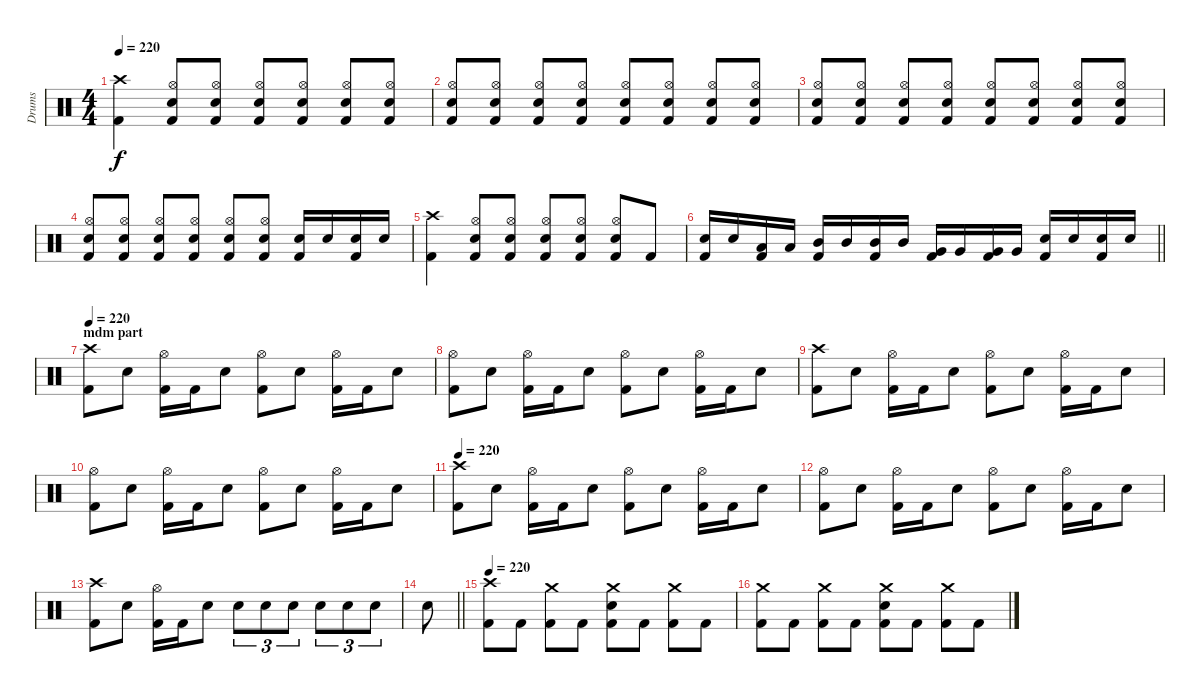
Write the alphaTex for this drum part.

\track ("Drums" "Drums") {instrument percussion}
\staff {score}
\articulation defaults
\ts (4 4)
\tempo 220
\clef neutral
\ks c
("Kick (hit) 2" "Crash high (hit)").4{dy f} ("Kick (hit) 2" "Hi-Hat (open)" "Electric Snare (hit)").8 ("Kick (hit) 2" "Hi-Hat (open)" "Electric Snare (hit)").8 ("Kick (hit) 2" "Hi-Hat (open)" "Electric Snare (hit)").8 ("Kick (hit) 2" "Hi-Hat (open)" "Electric Snare (hit)").8 ("Kick (hit) 2" "Hi-Hat (open)" "Electric Snare (hit)").8 ("Kick (hit) 2" "Hi-Hat (open)" "Electric Snare (hit)").8 |
("Kick (hit) 2" "Hi-Hat (open)" "Electric Snare (hit)").8 ("Kick (hit) 2" "Hi-Hat (open)" "Electric Snare (hit)").8 ("Kick (hit) 2" "Hi-Hat (open)" "Electric Snare (hit)").8 ("Kick (hit) 2" "Hi-Hat (open)" "Electric Snare (hit)").8 ("Kick (hit) 2" "Hi-Hat (open)" "Electric Snare (hit)").8 ("Kick (hit) 2" "Hi-Hat (open)" "Electric Snare (hit)").8 ("Kick (hit) 2" "Hi-Hat (open)" "Electric Snare (hit)").8 ("Kick (hit) 2" "Hi-Hat (open)" "Electric Snare (hit)").8 |
("Kick (hit) 2" "Hi-Hat (open)" "Electric Snare (hit)").8 ("Kick (hit) 2" "Hi-Hat (open)" "Electric Snare (hit)").8 ("Kick (hit) 2" "Hi-Hat (open)" "Electric Snare (hit)").8 ("Kick (hit) 2" "Hi-Hat (open)" "Electric Snare (hit)").8 ("Kick (hit) 2" "Hi-Hat (open)" "Electric Snare (hit)").8 ("Kick (hit) 2" "Hi-Hat (open)" "Electric Snare (hit)").8 ("Kick (hit) 2" "Hi-Hat (open)" "Electric Snare (hit)").8 ("Kick (hit) 2" "Hi-Hat (open)" "Electric Snare (hit)").8 |
("Kick (hit) 2" "Hi-Hat (open)" "Electric Snare (hit)").8 ("Kick (hit) 2" "Hi-Hat (open)" "Electric Snare (hit)").8 ("Kick (hit) 2" "Hi-Hat (open)" "Electric Snare (hit)").8 ("Kick (hit) 2" "Hi-Hat (open)" "Electric Snare (hit)").8 ("Kick (hit) 2" "Hi-Hat (open)" "Electric Snare (hit)").8 ("Kick (hit) 2" "Hi-Hat (open)" "Electric Snare (hit)").8 ("Electric Snare (hit)" "Kick (hit) 2").16 "Electric Snare (hit)".16 ("Electric Snare (hit)" "Kick (hit) 2").16 "Electric Snare (hit)".16 |
("Kick (hit) 2" "Crash high (hit)").4 ("Kick (hit) 2" "Hi-Hat (open)" "Electric Snare (hit)").8 ("Kick (hit) 2" "Hi-Hat (open)" "Electric Snare (hit)").8 ("Kick (hit) 2" "Hi-Hat (open)" "Electric Snare (hit)").8 ("Kick (hit) 2" "Hi-Hat (open)" "Electric Snare (hit)").8 ("Kick (hit) 2" "Hi-Hat (open)" "Electric Snare (hit)").8 "Kick (hit) 2".8 |
\barLineRight lightlight
("Electric Snare (hit)" "Kick (hit) 2").16 "Electric Snare (hit)".16 ("Low Tom (hit)" "Kick (hit) 2").16 "Low Tom (hit)".16 ("Mid Tom (hit)" "Kick (hit) 2").16 "Mid Tom (hit)".16 ("Mid Tom (hit)" "Kick (hit) 2").16 "Mid Tom (hit)".16 ("Very Low Tom (hit)" "Kick (hit) 2").16 "Very Low Tom (hit)".16 ("Very Low Tom (hit)" "Kick (hit) 2").16 "Very Low Tom (hit)".16 ("Electric Snare (hit)" "Kick (hit) 2").16 "Electric Snare (hit)".16 ("Electric Snare (hit)" "Kick (hit) 2").16 "Electric Snare (hit)".16 |
\section ("" "mdm part")
\tempo 220
("Crash high (hit)" "Kick (hit) 2").8 "Electric Snare (hit)".8 ("Hi-Hat (open)" "Kick (hit) 2").16 "Kick (hit) 2".16 "Electric Snare (hit)".8 ("Hi-Hat (open)" "Kick (hit) 2").8 "Electric Snare (hit)".8 ("Hi-Hat (open)" "Kick (hit) 2").16 "Kick (hit) 2".16 "Electric Snare (hit)".8 |
("Hi-Hat (open)" "Kick (hit) 2").8 "Electric Snare (hit)".8 ("Hi-Hat (open)" "Kick (hit) 2").16 "Kick (hit) 2".16 "Electric Snare (hit)".8 ("Hi-Hat (open)" "Kick (hit) 2").8 "Electric Snare (hit)".8 ("Hi-Hat (open)" "Kick (hit) 2").16 "Kick (hit) 2".16 "Electric Snare (hit)".8 |
("Crash high (hit)" "Kick (hit) 2").8 "Electric Snare (hit)".8 ("Hi-Hat (open)" "Kick (hit) 2").16 "Kick (hit) 2".16 "Electric Snare (hit)".8 ("Hi-Hat (open)" "Kick (hit) 2").8 "Electric Snare (hit)".8 ("Hi-Hat (open)" "Kick (hit) 2").16 "Kick (hit) 2".16 "Electric Snare (hit)".8 |
("Hi-Hat (open)" "Kick (hit) 2").8 "Electric Snare (hit)".8 ("Hi-Hat (open)" "Kick (hit) 2").16 "Kick (hit) 2".16 "Electric Snare (hit)".8 ("Hi-Hat (open)" "Kick (hit) 2").8 "Electric Snare (hit)".8 ("Hi-Hat (open)" "Kick (hit) 2").16 "Kick (hit) 2".16 "Electric Snare (hit)".8 |
\tempo 220
("Crash high (hit)" "Kick (hit) 2").8 "Electric Snare (hit)".8 ("Hi-Hat (open)" "Kick (hit) 2").16 "Kick (hit) 2".16 "Electric Snare (hit)".8 ("Hi-Hat (open)" "Kick (hit) 2").8 "Electric Snare (hit)".8 ("Hi-Hat (open)" "Kick (hit) 2").16 "Kick (hit) 2".16 "Electric Snare (hit)".8 |
("Hi-Hat (open)" "Kick (hit) 2").8 "Electric Snare (hit)".8 ("Hi-Hat (open)" "Kick (hit) 2").16 "Kick (hit) 2".16 "Electric Snare (hit)".8 ("Hi-Hat (open)" "Kick (hit) 2").8 "Electric Snare (hit)".8 ("Hi-Hat (open)" "Kick (hit) 2").16 "Kick (hit) 2".16 "Electric Snare (hit)".8 |
("Crash high (hit)" "Kick (hit) 2").8 "Electric Snare (hit)".8 ("Hi-Hat (open)" "Kick (hit) 2").16 "Kick (hit) 2".16 "Electric Snare (hit)".8 "Electric Snare (hit)".8{tu (3 2)} "Electric Snare (hit)".8{tu (3 2)} "Electric Snare (hit)".8{tu (3 2)} "Electric Snare (hit)".8{tu (3 2)} "Electric Snare (hit)".8{tu (3 2)} "Electric Snare (hit)".8{tu (3 2)} |
\barLineRight lightlight "Electric Snare (hit)".8
|
\tempo 220
("Crash high (hit)" "Kick (hit) 2").8 "Kick (hit) 2".8 ("Crash medium (hit)" "Kick (hit) 2").8 "Kick (hit) 2".8 ("Crash medium (hit)" "Electric Snare (hit)" "Kick (hit) 2").8 "Kick (hit) 2".8 ("Crash medium (hit)" "Kick (hit) 2").8 "Kick (hit) 2".8 |
("Crash medium (hit)" "Kick (hit) 2").8 "Kick (hit) 2".8 ("Crash medium (hit)" "Kick (hit) 2").8 "Kick (hit) 2".8 ("Crash medium (hit)" "Electric Snare (hit)" "Kick (hit) 2").8 "Kick (hit) 2".8 ("Crash medium (hit)" "Kick (hit) 2").8 "Kick (hit) 2".8
